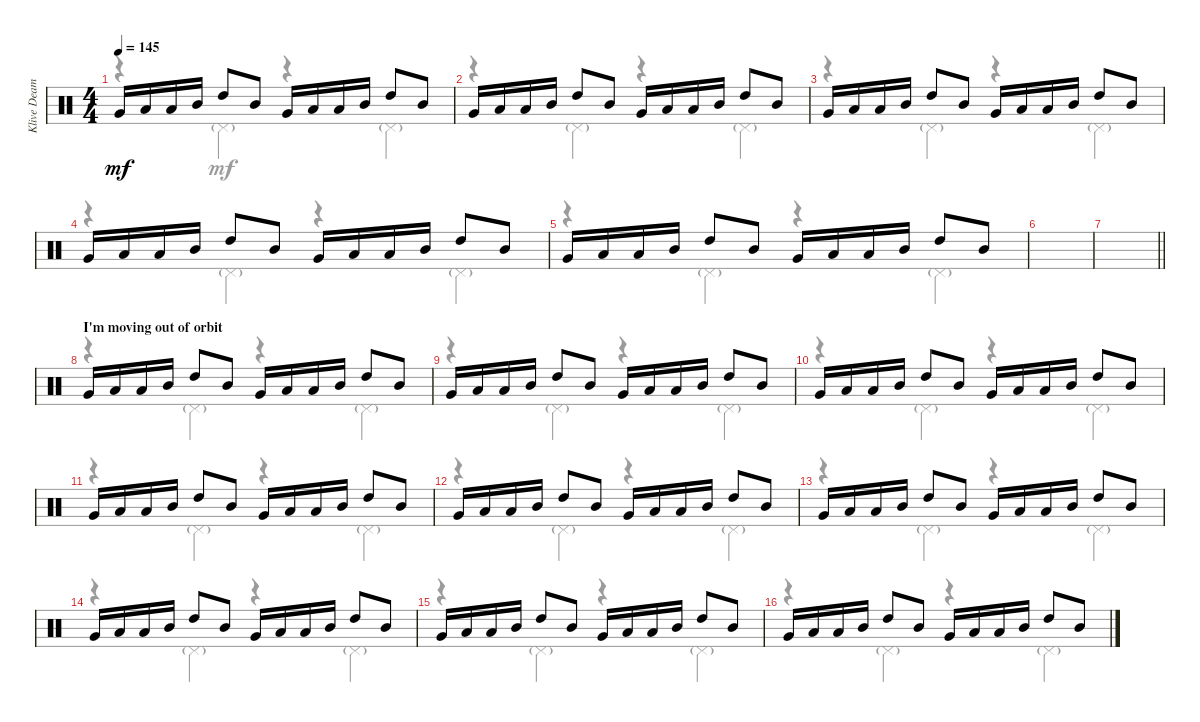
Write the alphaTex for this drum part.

\track ("Klive Deamer" "Klive Deam") {instrument percussion}
\staff {score}
\articulation defaults
\voice
\ts (4 4)
\tempo 145
\clef neutral
\ks c "Very Low Tom (hit)".16{dy mf} "Low Tom (hit)".16 "Low Tom (hit)".16 "Mid Tom (hit)".16 "High Tom (hit)".8 "Mid Tom (hit)".8 "Very Low Tom (hit)".16 "Low Tom (hit)".16 "Low Tom (hit)".16 "Mid Tom (hit)".16 "High Tom (hit)".8 "Mid Tom (hit)".8
|
"Very Low Tom (hit)".16 "Low Tom (hit)".16 "Low Tom (hit)".16 "Mid Tom (hit)".16 "High Tom (hit)".8 "Mid Tom (hit)".8 "Very Low Tom (hit)".16 "Low Tom (hit)".16 "Low Tom (hit)".16 "Mid Tom (hit)".16 "High Tom (hit)".8 "Mid Tom (hit)".8 |
"Very Low Tom (hit)".16 "Low Tom (hit)".16 "Low Tom (hit)".16 "Mid Tom (hit)".16 "High Tom (hit)".8 "Mid Tom (hit)".8 "Very Low Tom (hit)".16 "Low Tom (hit)".16 "Low Tom (hit)".16 "Mid Tom (hit)".16 "High Tom (hit)".8 "Mid Tom (hit)".8 |
"Very Low Tom (hit)".16 "Low Tom (hit)".16 "Low Tom (hit)".16 "Mid Tom (hit)".16 "High Tom (hit)".8 "Mid Tom (hit)".8 "Very Low Tom (hit)".16 "Low Tom (hit)".16 "Low Tom (hit)".16 "Mid Tom (hit)".16 "High Tom (hit)".8 "Mid Tom (hit)".8 |
"Very Low Tom (hit)".16 "Low Tom (hit)".16 "Low Tom (hit)".16 "Mid Tom (hit)".16 "High Tom (hit)".8 "Mid Tom (hit)".8 "Very Low Tom (hit)".16 "Low Tom (hit)".16 "Low Tom (hit)".16 "Mid Tom (hit)".16 "High Tom (hit)".8 "Mid Tom (hit)".8 |
|
\barLineRight lightlight
|
\section ("" "I'm moving out of orbit")
"Very Low Tom (hit)".16 "Low Tom (hit)".16 "Low Tom (hit)".16 "Mid Tom (hit)".16 "High Tom (hit)".8 "Mid Tom (hit)".8 "Very Low Tom (hit)".16 "Low Tom (hit)".16 "Low Tom (hit)".16 "Mid Tom (hit)".16 "High Tom (hit)".8 "Mid Tom (hit)".8 |
"Very Low Tom (hit)".16 "Low Tom (hit)".16 "Low Tom (hit)".16 "Mid Tom (hit)".16 "High Tom (hit)".8 "Mid Tom (hit)".8 "Very Low Tom (hit)".16 "Low Tom (hit)".16 "Low Tom (hit)".16 "Mid Tom (hit)".16 "High Tom (hit)".8 "Mid Tom (hit)".8 |
"Very Low Tom (hit)".16 "Low Tom (hit)".16 "Low Tom (hit)".16 "Mid Tom (hit)".16 "High Tom (hit)".8 "Mid Tom (hit)".8 "Very Low Tom (hit)".16 "Low Tom (hit)".16 "Low Tom (hit)".16 "Mid Tom (hit)".16 "High Tom (hit)".8 "Mid Tom (hit)".8 |
"Very Low Tom (hit)".16 "Low Tom (hit)".16 "Low Tom (hit)".16 "Mid Tom (hit)".16 "High Tom (hit)".8 "Mid Tom (hit)".8 "Very Low Tom (hit)".16 "Low Tom (hit)".16 "Low Tom (hit)".16 "Mid Tom (hit)".16 "High Tom (hit)".8 "Mid Tom (hit)".8 |
"Very Low Tom (hit)".16 "Low Tom (hit)".16 "Low Tom (hit)".16 "Mid Tom (hit)".16 "High Tom (hit)".8 "Mid Tom (hit)".8 "Very Low Tom (hit)".16 "Low Tom (hit)".16 "Low Tom (hit)".16 "Mid Tom (hit)".16 "High Tom (hit)".8 "Mid Tom (hit)".8 |
"Very Low Tom (hit)".16 "Low Tom (hit)".16 "Low Tom (hit)".16 "Mid Tom (hit)".16 "High Tom (hit)".8 "Mid Tom (hit)".8 "Very Low Tom (hit)".16 "Low Tom (hit)".16 "Low Tom (hit)".16 "Mid Tom (hit)".16 "High Tom (hit)".8 "Mid Tom (hit)".8 |
"Very Low Tom (hit)".16 "Low Tom (hit)".16 "Low Tom (hit)".16 "Mid Tom (hit)".16 "High Tom (hit)".8 "Mid Tom (hit)".8 "Very Low Tom (hit)".16 "Low Tom (hit)".16 "Low Tom (hit)".16 "Mid Tom (hit)".16 "High Tom (hit)".8 "Mid Tom (hit)".8 |
"Very Low Tom (hit)".16 "Low Tom (hit)".16 "Low Tom (hit)".16 "Mid Tom (hit)".16 "High Tom (hit)".8 "Mid Tom (hit)".8 "Very Low Tom (hit)".16 "Low Tom (hit)".16 "Low Tom (hit)".16 "Mid Tom (hit)".16 "High Tom (hit)".8 "Mid Tom (hit)".8 |
"Very Low Tom (hit)".16 "Low Tom (hit)".16 "Low Tom (hit)".16 "Mid Tom (hit)".16 "High Tom (hit)".8 "Mid Tom (hit)".8 "Very Low Tom (hit)".16 "Low Tom (hit)".16 "Low Tom (hit)".16 "Mid Tom (hit)".16 "High Tom (hit)".8 "Mid Tom (hit)".8
\voice
\clef neutral
\ottava regular
\simile none
\ks c
r.4{dy mf} "Pedal Hi-Hat (hit)"{g}.4 r.4 "Pedal Hi-Hat (hit)"{g}.4 |
r.4 "Pedal Hi-Hat (hit)"{g}.4 r.4 "Pedal Hi-Hat (hit)"{g}.4 |
r.4 "Pedal Hi-Hat (hit)"{g}.4 r.4 "Pedal Hi-Hat (hit)"{g}.4 |
r.4 "Pedal Hi-Hat (hit)"{g}.4 r.4 "Pedal Hi-Hat (hit)"{g}.4 |
r.4 "Pedal Hi-Hat (hit)"{g}.4 r.4 "Pedal Hi-Hat (hit)"{g}.4 |
|
\barLineRight lightlight
|
r.4 "Pedal Hi-Hat (hit)"{g}.4 r.4 "Pedal Hi-Hat (hit)"{g}.4 |
r.4 "Pedal Hi-Hat (hit)"{g}.4 r.4 "Pedal Hi-Hat (hit)"{g}.4 |
r.4 "Pedal Hi-Hat (hit)"{g}.4 r.4 "Pedal Hi-Hat (hit)"{g}.4 |
r.4 "Pedal Hi-Hat (hit)"{g}.4 r.4 "Pedal Hi-Hat (hit)"{g}.4 |
r.4 "Pedal Hi-Hat (hit)"{g}.4 r.4 "Pedal Hi-Hat (hit)"{g}.4 |
r.4 "Pedal Hi-Hat (hit)"{g}.4 r.4 "Pedal Hi-Hat (hit)"{g}.4 |
r.4 "Pedal Hi-Hat (hit)"{g}.4 r.4 "Pedal Hi-Hat (hit)"{g}.4 |
r.4 "Pedal Hi-Hat (hit)"{g}.4 r.4 "Pedal Hi-Hat (hit)"{g}.4 |
r.4 "Pedal Hi-Hat (hit)"{g}.4 r.4 "Pedal Hi-Hat (hit)"{g}.4
